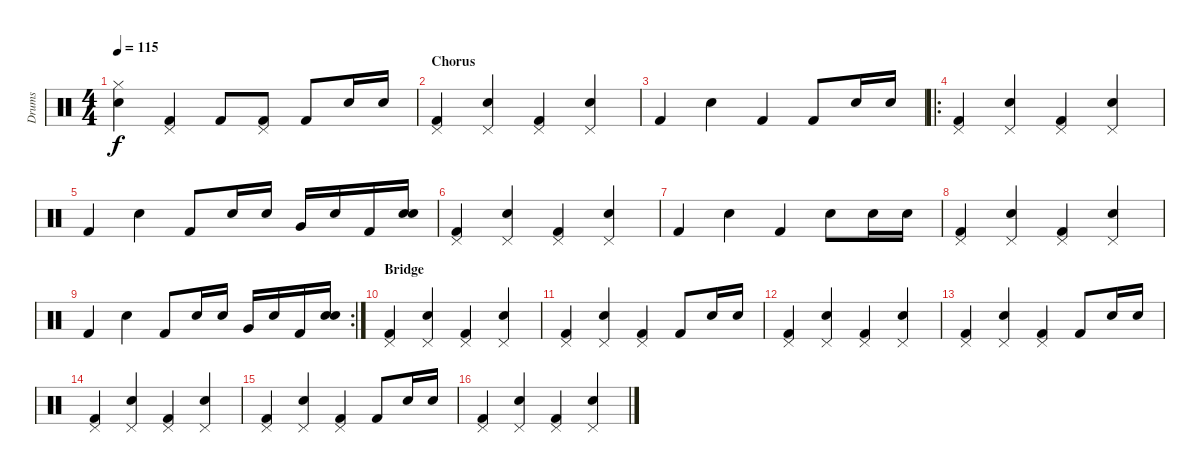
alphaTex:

\track ("Drums" "Drums") {instrument percussion}
\staff {score}
\articulation defaults
\ts (4 4)
\tempo 115
\clef neutral
\ks c
("Snare (hit) 2" "Hi-Hat (closed)").4{dy f} ("Pedal Hi-Hat (hit)" "Kick (hit) 2").4 "Kick (hit) 2".8 ("Pedal Hi-Hat (hit)" "Kick (hit) 2").8 "Kick (hit) 2".8 "Snare (hit) 2".16 "Electric Snare (hit)".16 |
\section ("" "Chorus")
("Pedal Hi-Hat (hit)" "Kick (hit) 2").4 ("Pedal Hi-Hat (hit)" "Electric Snare (hit)").4 ("Pedal Hi-Hat (hit)" "Kick (hit) 2").4 ("Pedal Hi-Hat (hit)" "Electric Snare (hit)").4 |
"Kick (hit) 2".4 "Electric Snare (hit)".4 "Kick (hit) 2".4 "Kick (hit) 2".8 "Snare (hit) 2".16 "Electric Snare (hit)".16 |
\ro
("Pedal Hi-Hat (hit)" "Kick (hit) 2").4 ("Pedal Hi-Hat (hit)" "Electric Snare (hit)").4 ("Pedal Hi-Hat (hit)" "Kick (hit) 2").4 ("Pedal Hi-Hat (hit)" "Electric Snare (hit)").4 |
"Kick (hit) 2".4 "Electric Snare (hit)".4 "Kick (hit) 2".8 "Snare (hit) 2".16 "Electric Snare (hit)".16 "Very Low Tom (hit)".16 "Electric Snare (hit)".16 "Kick (hit) 2".16 ("Snare (hit) 2" "Electric Snare (hit)").16 |
("Pedal Hi-Hat (hit)" "Kick (hit) 2").4 ("Pedal Hi-Hat (hit)" "Electric Snare (hit)").4 ("Pedal Hi-Hat (hit)" "Kick (hit) 2").4 ("Pedal Hi-Hat (hit)" "Electric Snare (hit)").4 |
"Kick (hit) 2".4 "Electric Snare (hit)".4 "Kick (hit) 2".4 "Electric Snare (hit)".8 "Snare (hit) 2".16 "Electric Snare (hit)".16 |
("Pedal Hi-Hat (hit)" "Kick (hit) 2").4 ("Pedal Hi-Hat (hit)" "Electric Snare (hit)").4 ("Pedal Hi-Hat (hit)" "Kick (hit) 2").4 ("Pedal Hi-Hat (hit)" "Electric Snare (hit)").4 |
\rc 2 "Kick (hit) 2".4 "Electric Snare (hit)".4 "Kick (hit) 2".8 "Snare (hit) 2".16 "Electric Snare (hit)".16 "Very Low Tom (hit)".16 "Electric Snare (hit)".16 "Kick (hit) 2".16
("Snare (hit) 2" "Electric Snare (hit)").16 |
\section ("" "Bridge")
("Pedal Hi-Hat (hit)" "Kick (hit) 2").4 ("Pedal Hi-Hat (hit)" "Electric Snare (hit)").4 ("Pedal Hi-Hat (hit)" "Kick (hit) 2").4 ("Pedal Hi-Hat (hit)" "Electric Snare (hit)").4 |
("Pedal Hi-Hat (hit)" "Kick (hit) 2").4 ("Pedal Hi-Hat (hit)" "Electric Snare (hit)").4 ("Pedal Hi-Hat (hit)" "Kick (hit) 2").4 "Kick (hit) 2".8 "Snare (hit) 2".16 "Electric Snare (hit)".16 |
("Pedal Hi-Hat (hit)" "Kick (hit) 2").4 ("Pedal Hi-Hat (hit)" "Electric Snare (hit)").4 ("Pedal Hi-Hat (hit)" "Kick (hit) 2").4 ("Pedal Hi-Hat (hit)" "Electric Snare (hit)").4 |
("Pedal Hi-Hat (hit)" "Kick (hit) 2").4 ("Pedal Hi-Hat (hit)" "Electric Snare (hit)").4 ("Pedal Hi-Hat (hit)" "Kick (hit) 2").4 "Kick (hit) 2".8 "Snare (hit) 2".16 "Electric Snare (hit)".16 |
("Pedal Hi-Hat (hit)" "Kick (hit) 2").4 ("Pedal Hi-Hat (hit)" "Electric Snare (hit)").4 ("Pedal Hi-Hat (hit)" "Kick (hit) 2").4 ("Pedal Hi-Hat (hit)" "Electric Snare (hit)").4 |
("Pedal Hi-Hat (hit)" "Kick (hit) 2").4 ("Pedal Hi-Hat (hit)" "Electric Snare (hit)").4 ("Pedal Hi-Hat (hit)" "Kick (hit) 2").4 "Kick (hit) 2".8 "Snare (hit) 2".16 "Electric Snare (hit)".16 |
("Pedal Hi-Hat (hit)" "Kick (hit) 2").4 ("Pedal Hi-Hat (hit)" "Electric Snare (hit)").4 ("Pedal Hi-Hat (hit)" "Kick (hit) 2").4 ("Pedal Hi-Hat (hit)" "Electric Snare (hit)").4
